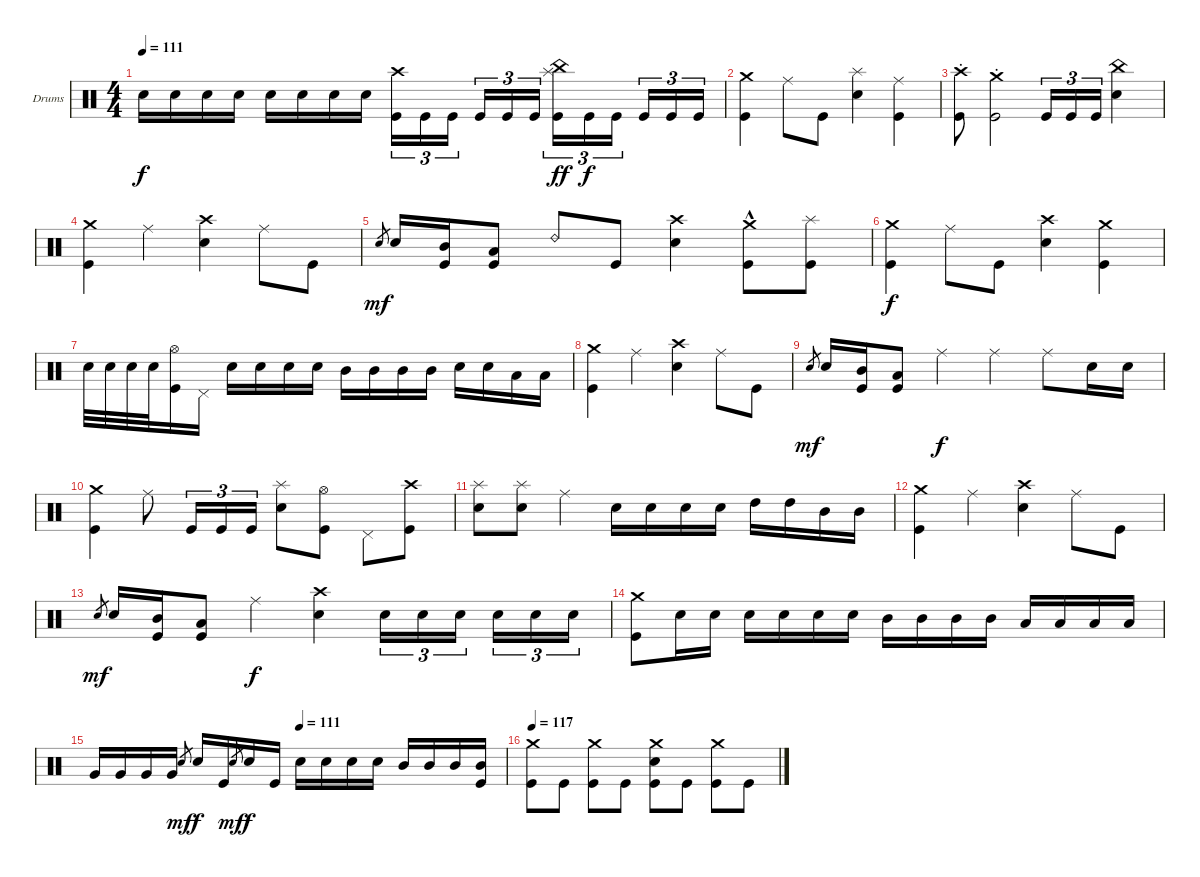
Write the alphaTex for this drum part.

\defaultSystemsLayout 4
\bracketExtendMode groupsimilarinstruments
\firstSystemTrackNameOrientation horizontal
\otherSystemsTrackNameOrientation horizontal
\track ("Drumkit" "Drums") {instrument percussion}
\staff {score}
\articulation defaults
\ts (4 4)
\tempo 111
\clef neutral
\ks c "Snare (hit) 2".16{dy f} "Snare (hit) 2".16 "Snare (hit) 2".16 "Snare (hit) 2".16 "Snare (hit) 2".16 "Snare (hit) 2".16 "Snare (hit) 2".16 "Snare (hit) 2".16
("Crash high (hit)" "Kick (hit)").16{tu (3 2)} "Kick (hit)".16{tu (3 2)} "Kick (hit)".16{tu (3 2)} "Kick (hit)".16{tu (3 2)} "Kick (hit)".16{tu (3 2)} "Kick (hit)".16{tu (3 2)} ("Splash (hit)" "China (hit)" "Kick (hit)").16{tu (3 2) dy ff} "Kick (hit)".16{tu (3 2) dy f} "Kick (hit)".16{tu (3 2)} "Kick (hit)".16{tu (3 2)} "Kick (hit)".16{tu (3 2)} "Kick (hit)".16{tu (3 2)} |
("Crash medium (hit)" "Kick (hit)").4 "Ride (middle)".8 "Kick (hit)".8 ("Splash (hit)" "Snare (hit) 2").4 ("Kick (hit)" "Ride (middle)").4 |
("Crash high (hit)"{st} "Kick (hit)").8 ("Crash medium (hit)"{st} "Kick (hit)").2 "Kick (hit)".16{tu (3 2)} "Kick (hit)".16{tu (3 2)} "Kick (hit)".16{tu (3 2)} ("Snare (hit) 2" "China (hit)").4 |
("Crash medium (hit)" "Kick (hit)").4 "Ride (middle)".4 ("Crash high (hit)" "Snare (hit) 2").4 "Ride (middle)".8 "Kick (hit)".8 |
"Snare (hit) 2".8{gr dy mf} "Snare (hit) 2".16 ("Kick (hit)" "Mid Tom (hit)").16 ("Kick (hit)" "Low Tom (hit)").8 "Ride (bell) 2".8 "Kick (hit)".8 ("Snare (hit) 2" "Crash high (hit)").4 ("Kick (hit)" "Crash medium (hit)"{hac}).8 ("Kick (hit)" "Splash (hit)").8 |
("Crash medium (hit)" "Kick (hit)").4{dy f} "Ride (middle)".8 "Kick (hit)".8 ("Crash high (hit)" "Snare (hit) 2").4 ("Crash medium (hit)" "Kick (hit)").4 |
"Snare (hit) 2".32 "Snare (hit) 2".32 "Snare (hit) 2".32 "Snare (hit) 2".32 ("Hi-Hat (open)" "Kick (hit)").16 "Pedal Hi-Hat (hit)".16 "Snare (hit) 2".16 "Snare (hit) 2".16 "Snare (hit) 2".16 "Snare (hit) 2".16 "Mid Tom (hit)".16 "Mid Tom (hit)".16 "Mid Tom (hit)".16 "Mid Tom (hit)".16 "Snare (hit) 2".16 "Snare (hit) 2".16 "Low Tom (hit)".16 "Low Tom (hit)".16 |
("Crash medium (hit)" "Kick (hit)").4 "Ride (middle)".4 ("Crash high (hit)" "Snare (hit) 2").4 "Ride (middle)".8 "Kick (hit)".8 |
"Snare (hit) 2".8{gr dy mf} "Snare (hit) 2".16 ("Kick (hit)" "Mid Tom (hit)").16 ("Kick (hit)" "Low Tom (hit)").8 "Ride (middle)".4{dy f} "Ride (middle)".4 "Ride (middle)".8 "Snare (hit) 2".16 "Snare (hit) 2".16 |
("Crash medium (hit)" "Kick (hit)").4 "Ride (middle)".8 "Kick (hit)".16{tu (3 2)} "Kick (hit)".16{tu (3 2)} "Kick (hit)".16{tu (3 2)} ("Splash (hit)" "Snare (hit) 2").8 ("Hi-Hat (open)" "Kick (hit)").8 "Pedal Hi-Hat (hit)".8 ("Crash high (hit)" "Kick (hit)").8 |
("Splash (hit)" "Snare (hit) 2").8 ("Splash (hit)" "Snare (hit) 2").8 "Ride (middle)".4 "Snare (hit) 2".16 "Snare (hit) 2".16 "Snare (hit) 2".16 "Snare (hit) 2".16 "High Tom (hit)".16 "High Tom (hit)".16 "Mid Tom (hit)".16 "Mid Tom (hit)".16 |
("Crash medium (hit)" "Kick (hit)").4 "Ride (middle)".4 ("Crash high (hit)" "Snare (hit) 2").4 "Ride (middle)".8 "Kick (hit)".8 |
"Snare (hit) 2".8{gr dy mf} "Snare (hit) 2".16 ("Kick (hit)" "Mid Tom (hit)").16 ("Kick (hit)" "Low Tom (hit)").8 "Ride (middle)".4{dy f} ("Snare (hit) 2" "Crash high (hit)").4 "Snare (hit) 2".16{tu (3 2)} "Snare (hit) 2".16{tu (3 2)} "Snare (hit) 2".16{tu (3 2)} "Snare (hit) 2".16{tu (3 2)} "Snare (hit) 2".16{tu (3 2)} "Snare (hit) 2".16{tu (3 2)} |
("Crash medium (hit)" "Kick (hit)").8 "Snare (hit) 2".16 "Snare (hit) 2".16 "Snare (hit) 2".16 "Snare (hit) 2".16 "Snare (hit) 2".16 "Snare (hit) 2".16 "Mid Tom (hit)".16 "Mid Tom (hit)".16 "Mid Tom (hit)".16 "Mid Tom (hit)".16 "Low Tom (hit)".16 "Low Tom (hit)".16 "Low Tom (hit)".16 "Low Tom (hit)".16 |
\tempo (111 0.5)
"Very Low Tom (hit)".16 "Very Low Tom (hit)".16 "Very Low Tom (hit)".16 "Very Low Tom (hit)".16 "Snare (hit) 2".8{gr dy mf} "Snare (hit) 2".16{dy f} "Kick (hit)".16 "Snare (hit) 2".8{gr dy mf} "Snare (hit) 2".16{dy f} "Kick (hit)".16 "Snare (hit) 2".16 "Snare (hit) 2".16 "Snare (hit) 2".16 "Snare (hit) 2".16 "Mid Tom (hit)".16 "Mid Tom (hit)".16 "Mid Tom (hit)".16 ("Mid Tom (hit)" "Kick (hit)").16 |
\tempo 117
("Crash medium (hit)" "Kick (hit)").8 "Kick (hit)".8 ("Crash medium (hit)" "Kick (hit)").8 "Kick (hit)".8 ("Crash medium (hit)" "Snare (hit) 2" "Kick (hit)").8 "Kick (hit)".8 ("Crash medium (hit)" "Kick (hit)").8 "Kick (hit)".8
